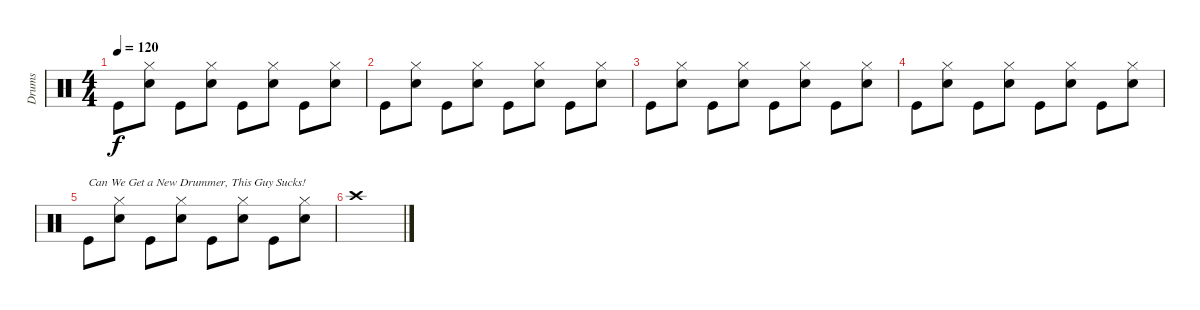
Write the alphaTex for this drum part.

\track ("Drums" "Drums") {instrument percussion}
\staff {score}
\articulation defaults
\ts (4 4)
\tempo 120
\clef neutral
\ks c "Kick (hit)".8{dy f}
("Hi-Hat (closed)" "Snare (hit) 2").8 "Kick (hit)".8 ("Hi-Hat (closed)" "Snare (hit) 2").8 "Kick (hit)".8 ("Hi-Hat (closed)" "Snare (hit) 2").8 "Kick (hit)".8 ("Hi-Hat (closed)" "Snare (hit) 2").8 |
"Kick (hit)".8 ("Hi-Hat (closed)" "Snare (hit) 2").8 "Kick (hit)".8 ("Hi-Hat (closed)" "Snare (hit) 2").8 "Kick (hit)".8 ("Hi-Hat (closed)" "Snare (hit) 2").8 "Kick (hit)".8 ("Hi-Hat (closed)" "Snare (hit) 2").8 |
"Kick (hit)".8 ("Hi-Hat (closed)" "Snare (hit) 2").8 "Kick (hit)".8 ("Hi-Hat (closed)" "Snare (hit) 2").8 "Kick (hit)".8 ("Hi-Hat (closed)" "Snare (hit) 2").8 "Kick (hit)".8 ("Hi-Hat (closed)" "Snare (hit) 2").8 |
"Kick (hit)".8 ("Hi-Hat (closed)" "Snare (hit) 2").8 "Kick (hit)".8 ("Hi-Hat (closed)" "Snare (hit) 2").8 "Kick (hit)".8 ("Hi-Hat (closed)" "Snare (hit) 2").8 "Kick (hit)".8 ("Hi-Hat (closed)" "Snare (hit) 2").8 |
"Kick (hit)".8{txt "Can We Get a New Drummer, This Guy Sucks!"} ("Hi-Hat (closed)" "Snare (hit) 2").8 "Kick (hit)".8 ("Hi-Hat (closed)" "Snare (hit) 2").8 "Kick (hit)".8 ("Hi-Hat (closed)" "Snare (hit) 2").8 "Kick (hit)".8 ("Hi-Hat (closed)" "Snare (hit) 2").8 |
"Crash high (hit)".1
